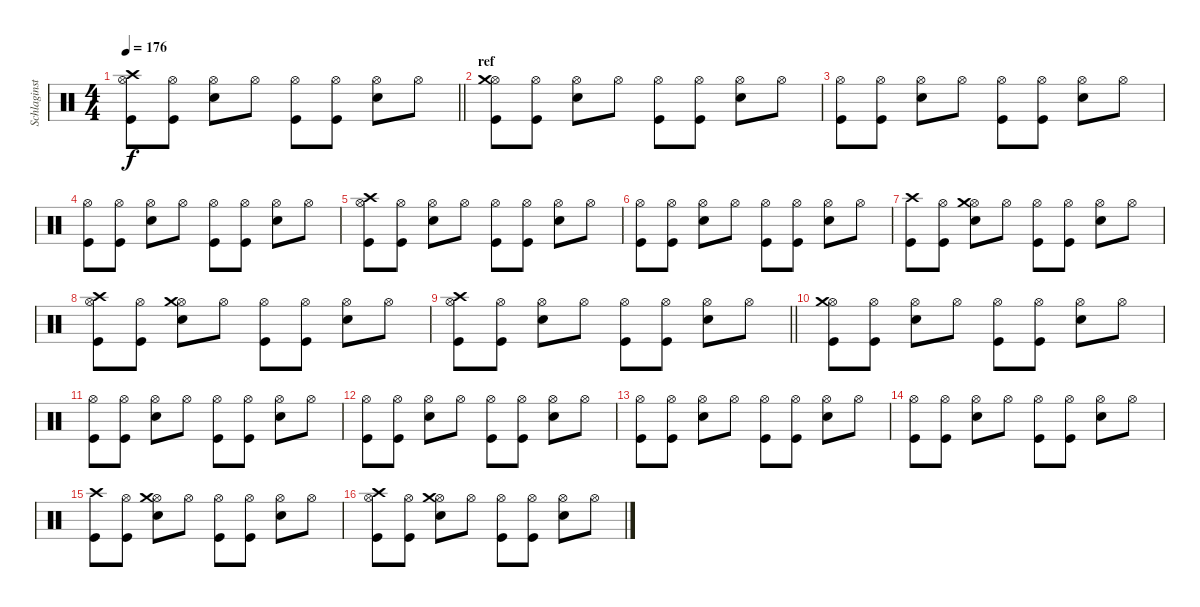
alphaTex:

\track ("Schlaginstrumente - Auswahl" "Schlaginst") {instrument percussion}
\staff {score}
\articulation defaults
\ts (4 4)
\tempo 176
\clef neutral
\barLineRight lightlight
\ks c
("Kick (hit)" "Hi-Hat (open)" "Crash high (hit)").8{dy f} ("Kick (hit)" "Hi-Hat (open)").8 ("Hi-Hat (open)" "Snare (hit) 2").8 "Hi-Hat (open)".8 ("Hi-Hat (open)" "Kick (hit)").8 ("Hi-Hat (open)" "Kick (hit)").8 ("Hi-Hat (open)" "Snare (hit) 2").8 "Hi-Hat (open)".8 |
\section ("" "ref")
("Kick (hit)" "Hi-Hat (open)" "Crash medium (hit)").8 ("Kick (hit)" "Hi-Hat (open)").8 ("Hi-Hat (open)" "Snare (hit) 2").8 "Hi-Hat (open)".8 ("Hi-Hat (open)" "Kick (hit)").8 ("Hi-Hat (open)" "Kick (hit)").8 ("Hi-Hat (open)" "Snare (hit) 2").8 "Hi-Hat (open)".8 |
("Hi-Hat (open)" "Kick (hit)").8 ("Hi-Hat (open)" "Kick (hit)").8 ("Hi-Hat (open)" "Snare (hit) 2").8 "Hi-Hat (open)".8 ("Hi-Hat (open)" "Kick (hit)").8 ("Hi-Hat (open)" "Kick (hit)").8 ("Hi-Hat (open)" "Snare (hit) 2").8 "Hi-Hat (open)".8 |
("Hi-Hat (open)" "Kick (hit)").8 ("Hi-Hat (open)" "Kick (hit)").8 ("Hi-Hat (open)" "Snare (hit) 2").8 "Hi-Hat (open)".8 ("Hi-Hat (open)" "Kick (hit)").8 ("Hi-Hat (open)" "Kick (hit)").8 ("Hi-Hat (open)" "Snare (hit) 2").8 "Hi-Hat (open)".8 |
("Hi-Hat (open)" "Kick (hit)" "Crash high (hit)").8 ("Hi-Hat (open)" "Kick (hit)").8 ("Hi-Hat (open)" "Snare (hit) 2").8 "Hi-Hat (open)".8 ("Hi-Hat (open)" "Kick (hit)").8 ("Hi-Hat (open)" "Kick (hit)").8 ("Hi-Hat (open)" "Snare (hit) 2").8 "Hi-Hat (open)".8 |
("Hi-Hat (open)" "Kick (hit)").8 ("Hi-Hat (open)" "Kick (hit)").8 ("Hi-Hat (open)" "Snare (hit) 2").8 "Hi-Hat (open)".8 ("Hi-Hat (open)" "Kick (hit)").8 ("Hi-Hat (open)" "Kick (hit)").8 ("Hi-Hat (open)" "Snare (hit) 2").8 "Hi-Hat (open)".8 |
("Crash high (hit)" "Kick (hit)").8 ("Hi-Hat (open)" "Kick (hit)").8 ("Hi-Hat (open)" "Snare (hit) 2" "Crash medium (hit)").8 "Hi-Hat (open)".8 ("Hi-Hat (open)" "Kick (hit)").8 ("Hi-Hat (open)" "Kick (hit)").8 ("Hi-Hat (open)" "Snare (hit) 2").8 "Hi-Hat (open)".8 |
("Hi-Hat (open)" "Kick (hit)" "Crash high (hit)").8 ("Hi-Hat (open)" "Kick (hit)").8 ("Hi-Hat (open)" "Snare (hit) 2" "Crash medium (hit)").8 "Hi-Hat (open)".8 ("Hi-Hat (open)" "Kick (hit)").8 ("Hi-Hat (open)" "Kick (hit)").8 ("Hi-Hat (open)" "Snare (hit) 2").8 "Hi-Hat (open)".8 |
\barLineRight lightlight
("Kick (hit)" "Hi-Hat (open)" "Crash high (hit)").8 ("Kick (hit)" "Hi-Hat (open)").8 ("Hi-Hat (open)" "Snare (hit) 2").8 "Hi-Hat (open)".8 ("Hi-Hat (open)" "Kick (hit)").8 ("Hi-Hat (open)" "Kick (hit)").8 ("Hi-Hat (open)" "Snare (hit) 2").8 "Hi-Hat (open)".8 |
("Kick (hit)" "Hi-Hat (open)" "Crash medium (hit)").8 ("Kick (hit)" "Hi-Hat (open)").8 ("Hi-Hat (open)" "Snare (hit) 2").8 "Hi-Hat (open)".8 ("Hi-Hat (open)" "Kick (hit)").8 ("Hi-Hat (open)" "Kick (hit)").8 ("Hi-Hat (open)" "Snare (hit) 2").8 "Hi-Hat (open)".8 |
("Hi-Hat (open)" "Kick (hit)").8 ("Hi-Hat (open)" "Kick (hit)").8 ("Hi-Hat (open)" "Snare (hit) 2").8 "Hi-Hat (open)".8 ("Hi-Hat (open)" "Kick (hit)").8 ("Hi-Hat (open)" "Kick (hit)").8 ("Hi-Hat (open)" "Snare (hit) 2").8 "Hi-Hat (open)".8 |
("Hi-Hat (open)" "Kick (hit)").8 ("Hi-Hat (open)" "Kick (hit)").8 ("Hi-Hat (open)" "Snare (hit) 2").8 "Hi-Hat (open)".8 ("Hi-Hat (open)" "Kick (hit)").8 ("Hi-Hat (open)" "Kick (hit)").8 ("Hi-Hat (open)" "Snare (hit) 2").8 "Hi-Hat (open)".8 |
("Hi-Hat (open)" "Kick (hit)").8 ("Hi-Hat (open)" "Kick (hit)").8 ("Hi-Hat (open)" "Snare (hit) 2").8 "Hi-Hat (open)".8 ("Hi-Hat (open)" "Kick (hit)").8 ("Hi-Hat (open)" "Kick (hit)").8 ("Hi-Hat (open)" "Snare (hit) 2").8 "Hi-Hat (open)".8 |
("Hi-Hat (open)" "Kick (hit)").8 ("Hi-Hat (open)" "Kick (hit)").8 ("Hi-Hat (open)" "Snare (hit) 2").8 "Hi-Hat (open)".8 ("Hi-Hat (open)" "Kick (hit)").8 ("Hi-Hat (open)" "Kick (hit)").8 ("Hi-Hat (open)" "Snare (hit) 2").8 "Hi-Hat (open)".8 |
("Crash high (hit)" "Kick (hit)").8 ("Hi-Hat (open)" "Kick (hit)").8 ("Hi-Hat (open)" "Snare (hit) 2" "Crash medium (hit)").8 "Hi-Hat (open)".8 ("Hi-Hat (open)" "Kick (hit)").8 ("Hi-Hat (open)" "Kick (hit)").8 ("Hi-Hat (open)" "Snare (hit) 2").8 "Hi-Hat (open)".8 |
("Hi-Hat (open)" "Kick (hit)" "Crash high (hit)").8 ("Hi-Hat (open)" "Kick (hit)").8 ("Hi-Hat (open)" "Snare (hit) 2" "Crash medium (hit)").8 "Hi-Hat (open)".8 ("Hi-Hat (open)" "Kick (hit)").8 ("Hi-Hat (open)" "Kick (hit)").8 ("Hi-Hat (open)" "Snare (hit) 2").8 "Hi-Hat (open)".8
